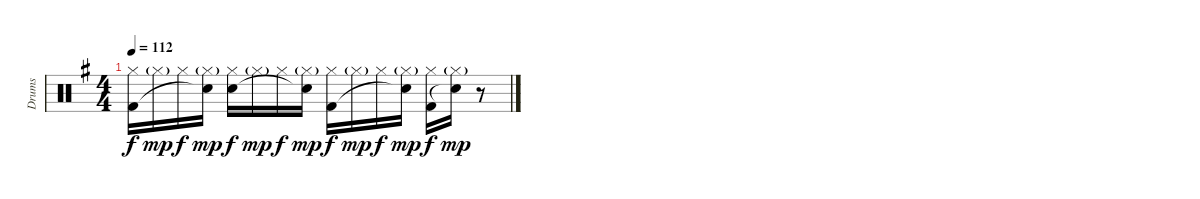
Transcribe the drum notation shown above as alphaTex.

\track ("Drums" "Drums") {instrument percussion}
\staff {score}
\articulation defaults
\ts (4 4)
\tempo 112
\clef neutral
\ks g
("Hi-Hat (closed)" "Kick (hit) 2").16{dy f} "Hi-Hat (closed)"{g}.16{dy mp} "Hi-Hat (closed)".16{dy f} ("Hi-Hat (closed)"{g} "Snare (hit)"{t}).16{dy mp} ("Hi-Hat (closed)" "Electric Snare (hit)").16{dy f} "Hi-Hat (closed)"{g}.16{dy mp} "Hi-Hat (closed)".16{dy f} ("Hi-Hat (closed)"{g} "Snare (hit)"{t}).16{dy mp} ("Hi-Hat (closed)" "Kick (hit) 2").16{dy f} "Hi-Hat (closed)"{g}.16{dy mp} "Hi-Hat (closed)".16{dy f} ("Hi-Hat (closed)"{g} "Snare (hit)"{t}).16{dy mp} ("Hi-Hat (closed)" "Kick (hit) 2").16{dy f} ("Hi-Hat (closed)"{g} "Snare (hit)"{t}).16{dy mp} r.8
